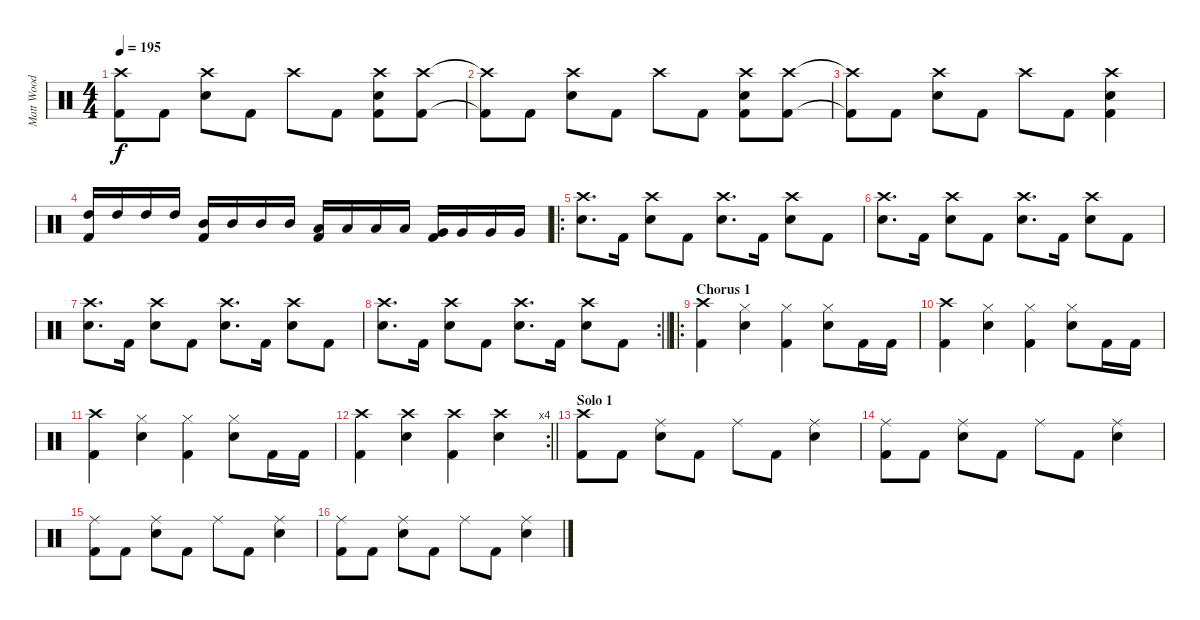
\track ("Matt Wood" "Matt Wood") {instrument percussion}
\staff {score}
\articulation defaults
\ts (4 4)
\tempo 195
\clef neutral
\ks c
("Crash high (hit)"{t} "Kick (hit) 2"{t}).8{dy f} "Kick (hit) 2".8 ("Crash high (hit)" "Snare (hit) 2").8 "Kick (hit) 2".8 "Crash high (hit)".8 "Kick (hit) 2".8 ("Crash high (hit)" "Snare (hit) 2" "Kick (hit) 2").8 ("Crash high (hit)" "Kick (hit) 2").8 |
("Crash high (hit)"{t} "Kick (hit) 2"{t}).8 "Kick (hit) 2".8 ("Crash high (hit)" "Snare (hit) 2").8 "Kick (hit) 2".8 "Crash high (hit)".8 "Kick (hit) 2".8 ("Crash high (hit)" "Snare (hit) 2" "Kick (hit) 2").8 ("Crash high (hit)" "Kick (hit) 2").8 |
("Crash high (hit)"{t} "Kick (hit) 2"{t}).8 "Kick (hit) 2".8 ("Crash high (hit)" "Snare (hit) 2").8 "Kick (hit) 2".8 "Crash high (hit)".8 "Kick (hit) 2".8 ("Crash high (hit)" "Snare (hit) 2" "Kick (hit) 2").4 |
("High Tom (hit)" "Kick (hit) 2").16 "High Tom (hit)".16 "High Tom (hit)".16 "High Tom (hit)".16 ("Mid Tom (hit)" "Kick (hit) 2").16 "Mid Tom (hit)".16 "Mid Tom (hit)".16 "Mid Tom (hit)".16 ("Low Tom (hit)" "Kick (hit) 2").16 "Low Tom (hit)".16 "Low Tom (hit)".16 "Low Tom (hit)".16 ("Very Low Tom (hit)" "Kick (hit) 2").16 "Very Low Tom (hit)".16 "Very Low Tom (hit)".16 "Very Low Tom (hit)".16 |
\ro
("Crash high (hit)" "Snare (hit) 2").8{d} "Kick (hit) 2".16 ("Crash high (hit)" "Snare (hit) 2").8 "Kick (hit) 2".8 ("Crash high (hit)" "Snare (hit) 2").8{d} "Kick (hit) 2".16 ("Crash high (hit)" "Snare (hit) 2").8 "Kick (hit) 2".8 |
("Crash high (hit)" "Snare (hit) 2").8{d} "Kick (hit) 2".16 ("Crash high (hit)" "Snare (hit) 2").8 "Kick (hit) 2".8 ("Crash high (hit)" "Snare (hit) 2").8{d} "Kick (hit) 2".16 ("Crash high (hit)" "Snare (hit) 2").8 "Kick (hit) 2".8 |
("Crash high (hit)" "Snare (hit) 2").8{d} "Kick (hit) 2".16 ("Crash high (hit)" "Snare (hit) 2").8 "Kick (hit) 2".8 ("Crash high (hit)" "Snare (hit) 2").8{d} "Kick (hit) 2".16 ("Crash high (hit)" "Snare (hit) 2").8 "Kick (hit) 2".8 |
\rc 2
\barLineRight lightlight
("Crash high (hit)" "Snare (hit) 2").8{d} "Kick (hit) 2".16 ("Crash high (hit)" "Snare (hit) 2").8 "Kick (hit) 2".8 ("Crash high (hit)" "Snare (hit) 2").8{d} "Kick (hit) 2".16 ("Crash high (hit)" "Snare (hit) 2").8 "Kick (hit) 2".8 |
\ro
\section ("" "Chorus 1")
("Crash high (hit)" "Kick (hit) 2").4 ("Hi-Hat (closed)" "Snare (hit) 2").4 ("Hi-Hat (closed)" "Kick (hit) 2").4 ("Hi-Hat (closed)" "Snare (hit) 2").8 "Kick (hit) 2".16 "Kick (hit) 2".16 |
("Crash high (hit)" "Kick (hit) 2").4 ("Hi-Hat (closed)" "Snare (hit) 2").4 ("Hi-Hat (closed)" "Kick (hit) 2").4 ("Hi-Hat (closed)" "Snare (hit) 2").8 "Kick (hit) 2".16 "Kick (hit) 2".16 |
("Crash high (hit)" "Kick (hit) 2").4 ("Hi-Hat (closed)" "Snare (hit) 2").4 ("Hi-Hat (closed)" "Kick (hit) 2").4 ("Hi-Hat (closed)" "Snare (hit) 2").8 "Kick (hit) 2".16 "Kick (hit) 2".16 |
\rc 4
\barLineRight lightlight
("Crash high (hit)" "Kick (hit) 2").4 ("Crash high (hit)" "Snare (hit) 2").4 ("Crash high (hit)" "Kick (hit) 2").4 ("Crash high (hit)" "Snare (hit) 2").4 |
\section ("" "Solo 1")
("Crash high (hit)" "Kick (hit) 2").8 "Kick (hit) 2".8 ("Ride (middle)" "Snare (hit) 2").8 "Kick (hit) 2".8 "Ride (middle)".8 "Kick (hit) 2".8 ("Ride (middle)" "Snare (hit) 2").4 |
("Ride (middle)" "Kick (hit) 2").8 "Kick (hit) 2".8 ("Ride (middle)" "Snare (hit) 2").8 "Kick (hit) 2".8 "Ride (middle)".8 "Kick (hit) 2".8 ("Ride (middle)" "Snare (hit) 2").4 |
("Ride (middle)" "Kick (hit) 2").8 "Kick (hit) 2".8 ("Ride (middle)" "Snare (hit) 2").8 "Kick (hit) 2".8 "Ride (middle)".8 "Kick (hit) 2".8 ("Ride (middle)" "Snare (hit) 2").4 |
("Ride (middle)" "Kick (hit) 2").8 "Kick (hit) 2".8 ("Ride (middle)" "Snare (hit) 2").8 "Kick (hit) 2".8 "Ride (middle)".8 "Kick (hit) 2".8 ("Ride (middle)" "Snare (hit) 2").4
